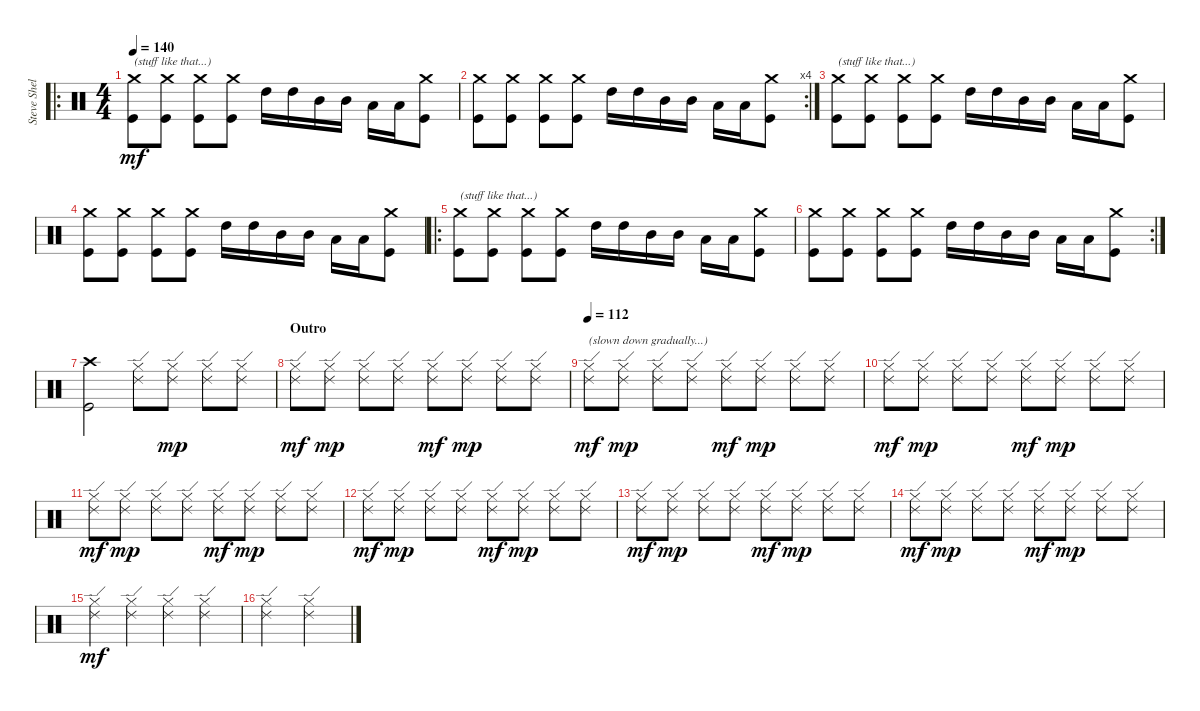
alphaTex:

\track ("Steve Shelley" "Steve Shel") {instrument percussion}
\staff {score}
\articulation defaults
\ro
\ts (4 4)
\tempo 140
\clef neutral
\ks c
("Crash medium (hit)" "Kick (hit)").8{txt "(stuff like that...)" dy mf} ("Crash medium (hit)" "Kick (hit)").8 ("Crash medium (hit)" "Kick (hit)").8 ("Crash medium (hit)" "Kick (hit)").8 "High Tom (hit)".16 "High Tom (hit)".16 "Mid Tom (hit)".16 "Mid Tom (hit)".16 "Low Tom (hit)".16 "Low Tom (hit)".16 ("Crash medium (hit)" "Kick (hit)").8 |
\rc 4
("Crash medium (hit)" "Kick (hit)").8 ("Crash medium (hit)" "Kick (hit)").8 ("Crash medium (hit)" "Kick (hit)").8 ("Crash medium (hit)" "Kick (hit)").8 "High Tom (hit)".16 "High Tom (hit)".16 "Mid Tom (hit)".16 "Mid Tom (hit)".16 "Low Tom (hit)".16 "Low Tom (hit)".16 ("Crash medium (hit)" "Kick (hit)").8 |
("Crash medium (hit)" "Kick (hit)").8{txt "(stuff like that...)"} ("Crash medium (hit)" "Kick (hit)").8 ("Crash medium (hit)" "Kick (hit)").8 ("Crash medium (hit)" "Kick (hit)").8 "High Tom (hit)".16 "High Tom (hit)".16 "Mid Tom (hit)".16 "Mid Tom (hit)".16 "Low Tom (hit)".16 "Low Tom (hit)".16 ("Crash medium (hit)" "Kick (hit)").8 |
("Crash medium (hit)" "Kick (hit)").8 ("Crash medium (hit)" "Kick (hit)").8 ("Crash medium (hit)" "Kick (hit)").8 ("Crash medium (hit)" "Kick (hit)").8 "High Tom (hit)".16 "High Tom (hit)".16 "Mid Tom (hit)".16 "Mid Tom (hit)".16 "Low Tom (hit)".16 "Low Tom (hit)".16 ("Crash medium (hit)" "Kick (hit)").8 |
\ro
("Crash medium (hit)" "Kick (hit)").8{txt "(stuff like that...)"} ("Crash medium (hit)" "Kick (hit)").8 ("Crash medium (hit)" "Kick (hit)").8 ("Crash medium (hit)" "Kick (hit)").8 "High Tom (hit)".16 "High Tom (hit)".16 "Mid Tom (hit)".16 "Mid Tom (hit)".16 "Low Tom (hit)".16 "Low Tom (hit)".16 ("Crash medium (hit)" "Kick (hit)").8 |
\rc 2
("Crash medium (hit)" "Kick (hit)").8 ("Crash medium (hit)" "Kick (hit)").8 ("Crash medium (hit)" "Kick (hit)").8 ("Crash medium (hit)" "Kick (hit)").8 "High Tom (hit)".16 "High Tom (hit)".16 "Mid Tom (hit)".16 "Mid Tom (hit)".16 "Low Tom (hit)".16 "Low Tom (hit)".16 ("Crash medium (hit)" "Kick (hit)").8 |
("Crash high (hit)" "Kick (hit)").2 ("Ride (edge) 2" "Hi-Hat (closed)").8 ("Ride (edge) 2" "Hi-Hat (closed)").8{dy mp} ("Ride (edge) 2" "Hi-Hat (closed)").8 ("Ride (edge) 2" "Hi-Hat (closed)").8 |
\section ("" "Outro")
("Ride (edge) 2" "Hi-Hat (closed)").8{dy mf} ("Ride (edge) 2" "Hi-Hat (closed)").8{dy mp} ("Ride (edge) 2" "Hi-Hat (closed)").8 ("Ride (edge) 2" "Hi-Hat (closed)").8 ("Ride (edge) 2" "Hi-Hat (closed)").8{dy mf} ("Ride (edge) 2" "Hi-Hat (closed)").8{dy mp} ("Ride (edge) 2" "Hi-Hat (closed)").8 ("Ride (edge) 2" "Hi-Hat (closed)").8 |
\tempo 112
("Ride (edge) 2" "Hi-Hat (closed)").8{txt "(slown down gradually...)" dy mf} ("Ride (edge) 2" "Hi-Hat (closed)").8{dy mp} ("Ride (edge) 2" "Hi-Hat (closed)").8 ("Ride (edge) 2" "Hi-Hat (closed)").8 ("Ride (edge) 2" "Hi-Hat (closed)").8{dy mf} ("Ride (edge) 2" "Hi-Hat (closed)").8{dy mp} ("Ride (edge) 2" "Hi-Hat (closed)").8 ("Ride (edge) 2" "Hi-Hat (closed)").8 |
("Ride (edge) 2" "Hi-Hat (closed)").8{dy mf} ("Ride (edge) 2" "Hi-Hat (closed)").8{dy mp} ("Ride (edge) 2" "Hi-Hat (closed)").8 ("Ride (edge) 2" "Hi-Hat (closed)").8 ("Ride (edge) 2" "Hi-Hat (closed)").8{dy mf} ("Ride (edge) 2" "Hi-Hat (closed)").8{dy mp} ("Ride (edge) 2" "Hi-Hat (closed)").8 ("Ride (edge) 2" "Hi-Hat (closed)").8 |
("Ride (edge) 2" "Hi-Hat (closed)").8{dy mf} ("Ride (edge) 2" "Hi-Hat (closed)").8{dy mp} ("Ride (edge) 2" "Hi-Hat (closed)").8 ("Ride (edge) 2" "Hi-Hat (closed)").8 ("Ride (edge) 2" "Hi-Hat (closed)").8{dy mf} ("Ride (edge) 2" "Hi-Hat (closed)").8{dy mp} ("Ride (edge) 2" "Hi-Hat (closed)").8 ("Ride (edge) 2" "Hi-Hat (closed)").8 |
("Ride (edge) 2" "Hi-Hat (closed)").8{dy mf} ("Ride (edge) 2" "Hi-Hat (closed)").8{dy mp} ("Ride (edge) 2" "Hi-Hat (closed)").8 ("Ride (edge) 2" "Hi-Hat (closed)").8 ("Ride (edge) 2" "Hi-Hat (closed)").8{dy mf} ("Ride (edge) 2" "Hi-Hat (closed)").8{dy mp} ("Ride (edge) 2" "Hi-Hat (closed)").8 ("Ride (edge) 2" "Hi-Hat (closed)").8 |
("Ride (edge) 2" "Hi-Hat (closed)").8{dy mf} ("Ride (edge) 2" "Hi-Hat (closed)").8{dy mp} ("Ride (edge) 2" "Hi-Hat (closed)").8 ("Ride (edge) 2" "Hi-Hat (closed)").8 ("Ride (edge) 2" "Hi-Hat (closed)").8{dy mf} ("Ride (edge) 2" "Hi-Hat (closed)").8{dy mp} ("Ride (edge) 2" "Hi-Hat (closed)").8 ("Ride (edge) 2" "Hi-Hat (closed)").8 |
("Ride (edge) 2" "Hi-Hat (closed)").8{dy mf} ("Ride (edge) 2" "Hi-Hat (closed)").8{dy mp} ("Ride (edge) 2" "Hi-Hat (closed)").8 ("Ride (edge) 2" "Hi-Hat (closed)").8 ("Ride (edge) 2" "Hi-Hat (closed)").8{dy mf} ("Ride (edge) 2" "Hi-Hat (closed)").8{dy mp} ("Ride (edge) 2" "Hi-Hat (closed)").8 ("Ride (edge) 2" "Hi-Hat (closed)").8 |
("Ride (edge) 2" "Hi-Hat (closed)").4{dy mf} ("Ride (edge) 2" "Hi-Hat (closed)").4 ("Ride (edge) 2" "Hi-Hat (closed)").4 ("Ride (edge) 2" "Hi-Hat (closed)").4 |
("Ride (edge) 2" "Hi-Hat (closed)").2 ("Ride (edge) 2" "Hi-Hat (closed)").2
